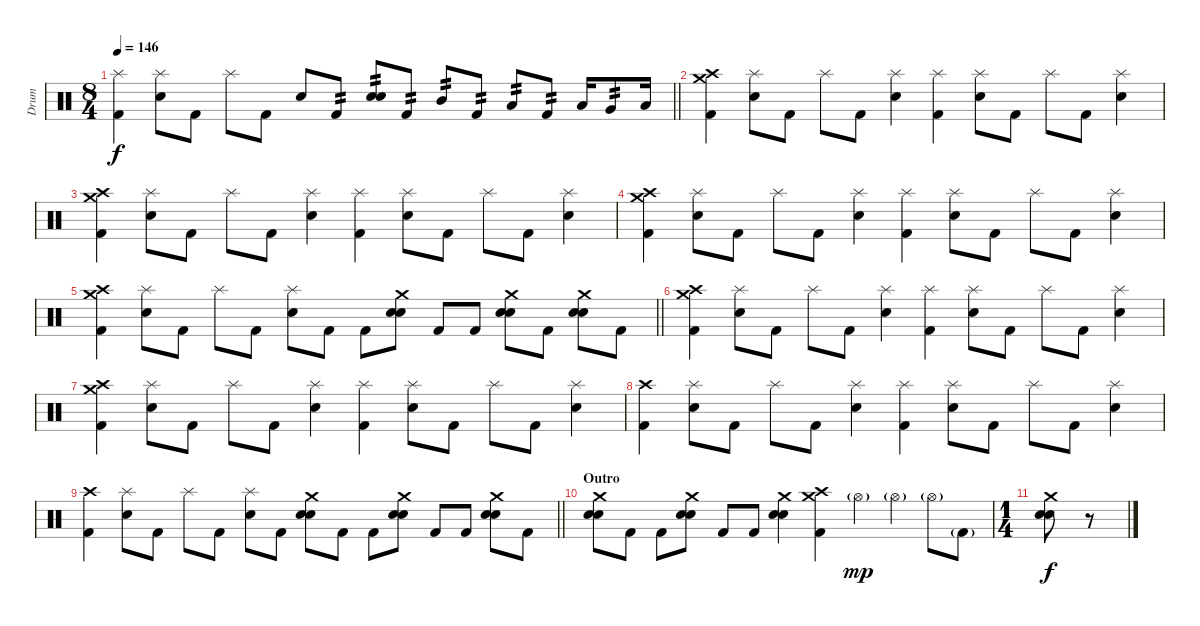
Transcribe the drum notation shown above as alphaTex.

\track ("Drum" "Drum") {instrument percussion}
\staff {score}
\articulation defaults
\ts (8 4)
\tempo 146
\clef neutral
\barLineRight lightlight
\ks c
("Splash (hit)" "Kick (hit) 2").4{dy f} ("Splash (hit)" "Electric Snare (hit)").8 "Kick (hit) 2".8 "Splash (hit)".8 "Kick (hit) 2".8 "Electric Snare (hit)".8 "Kick (hit) 2".8{tp 2} ("Electric Snare (hit)" "Electric Snare (hit)").8{tp 2} "Kick (hit) 2".8{tp 2} "Mid Tom (hit)".8{tp 2} "Kick (hit) 2".8{tp 2} "Low Tom (hit)".8{tp 2} "Kick (hit) 2".8{tp 2} "Low Tom (hit)".16 "Very Low Tom (hit)".8{tp 2} "Low Floor Tom (hit)".16 |
\section ("" "")
("Kick (hit) 2" "Crash high (hit)" "Crash medium (hit)").4 ("Splash (hit)" "Electric Snare (hit)").8 "Kick (hit) 2".8 "Splash (hit)".8 "Kick (hit) 2".8 ("Splash (hit)" "Electric Snare (hit)").4 ("Splash (hit)" "Kick (hit) 2").4 ("Splash (hit)" "Electric Snare (hit)").8 "Kick (hit) 2".8 "Splash (hit)".8 "Kick (hit) 2".8 ("Splash (hit)" "Electric Snare (hit)").4 |
("Kick (hit) 2" "Crash high (hit)" "Crash medium (hit)").4 ("Splash (hit)" "Electric Snare (hit)").8 "Kick (hit) 2".8 "Splash (hit)".8 "Kick (hit) 2".8 ("Splash (hit)" "Electric Snare (hit)").4 ("Splash (hit)" "Kick (hit) 2").4 ("Splash (hit)" "Electric Snare (hit)").8 "Kick (hit) 2".8 "Splash (hit)".8 "Kick (hit) 2".8 ("Splash (hit)" "Electric Snare (hit)").4 |
("Kick (hit) 2" "Crash high (hit)" "Crash medium (hit)").4 ("Splash (hit)" "Electric Snare (hit)").8 "Kick (hit) 2".8 "Splash (hit)".8 "Kick (hit) 2".8 ("Splash (hit)" "Electric Snare (hit)").4 ("Splash (hit)" "Kick (hit) 2").4 ("Splash (hit)" "Electric Snare (hit)").8 "Kick (hit) 2".8 "Splash (hit)".8 "Kick (hit) 2".8 ("Splash (hit)" "Electric Snare (hit)").4 |
\barLineRight lightlight
("Kick (hit) 2" "Crash high (hit)" "Crash medium (hit)").4 ("Splash (hit)" "Electric Snare (hit)").8 "Kick (hit) 2".8 "Splash (hit)".8 "Kick (hit) 2".8 ("Splash (hit)" "Electric Snare (hit)").8 "Kick (hit) 2".8 "Kick (hit) 2".8 ("Electric Snare (hit)" "Electric Snare (hit)" "Crash medium (hit)").8 "Kick (hit) 2".8 "Kick (hit) 2".8 ("Electric Snare (hit)" "Electric Snare (hit)" "Crash medium (hit)").8 "Kick (hit) 2".8 ("Electric Snare (hit)" "Electric Snare (hit)" "Crash medium (hit)").8 "Kick (hit) 2".8 |
\section ("" "")
("Kick (hit) 2" "Crash high (hit)" "Crash medium (hit)").4 ("Splash (hit)" "Electric Snare (hit)").8 "Kick (hit) 2".8 "Splash (hit)".8 "Kick (hit) 2".8 ("Splash (hit)" "Electric Snare (hit)").4 ("Splash (hit)" "Kick (hit) 2").4 ("Splash (hit)" "Electric Snare (hit)").8 "Kick (hit) 2".8 "Splash (hit)".8 "Kick (hit) 2".8 ("Splash (hit)" "Electric Snare (hit)").4 |
("Kick (hit) 2" "Crash high (hit)" "Crash medium (hit)").4 ("Splash (hit)" "Electric Snare (hit)").8 "Kick (hit) 2".8 "Splash (hit)".8 "Kick (hit) 2".8 ("Splash (hit)" "Electric Snare (hit)").4 ("Splash (hit)" "Kick (hit) 2").4 ("Splash (hit)" "Electric Snare (hit)").8 "Kick (hit) 2".8 "Splash (hit)".8 "Kick (hit) 2".8 ("Splash (hit)" "Electric Snare (hit)").4 |
("Kick (hit) 2" "Crash high (hit)").4 ("Splash (hit)" "Electric Snare (hit)").8 "Kick (hit) 2".8 "Splash (hit)".8 "Kick (hit) 2".8 ("Splash (hit)" "Electric Snare (hit)").4 ("Splash (hit)" "Kick (hit) 2").4 ("Splash (hit)" "Electric Snare (hit)").8 "Kick (hit) 2".8 "Splash (hit)".8 "Kick (hit) 2".8 ("Splash (hit)" "Electric Snare (hit)").4 |
\barLineRight lightlight
("Kick (hit) 2" "Crash high (hit)").4 ("Splash (hit)" "Electric Snare (hit)").8 "Kick (hit) 2".8 "Splash (hit)".8 "Kick (hit) 2".8 ("Splash (hit)" "Electric Snare (hit)").8 "Kick (hit) 2".8 ("Electric Snare (hit)" "Electric Snare (hit)" "Crash medium (hit)").8 "Kick (hit) 2".8 "Kick (hit) 2".8 ("Electric Snare (hit)" "Electric Snare (hit)" "Crash medium (hit)").8 "Kick (hit) 2".8 "Kick (hit) 2".8 ("Electric Snare (hit)" "Electric Snare (hit)" "Crash medium (hit)").8 "Kick (hit) 2".8 |
\section ("" "Outro")
("Electric Snare (hit)" "Electric Snare (hit)" "Crash medium (hit)").8 "Kick (hit) 2".8 "Kick (hit) 2".8 ("Electric Snare (hit)" "Electric Snare (hit)" "Crash medium (hit)").8 "Kick (hit) 2".8 "Kick (hit) 2".8 ("Electric Snare (hit)" "Electric Snare (hit)" "Crash medium (hit)").4 ("Kick (hit) 2" "Crash high (hit)" "Crash medium (hit)").4 "Hi-Hat (open)"{g}.4{dy mp} "Hi-Hat (open)"{g}.4 "Hi-Hat (open)"{g}.8 "Kick (hit) 2"{g}.8 |
\ts (1 4)
("Electric Snare (hit)" "Electric Snare (hit)" "Crash medium (hit)").8{dy f} r.8
